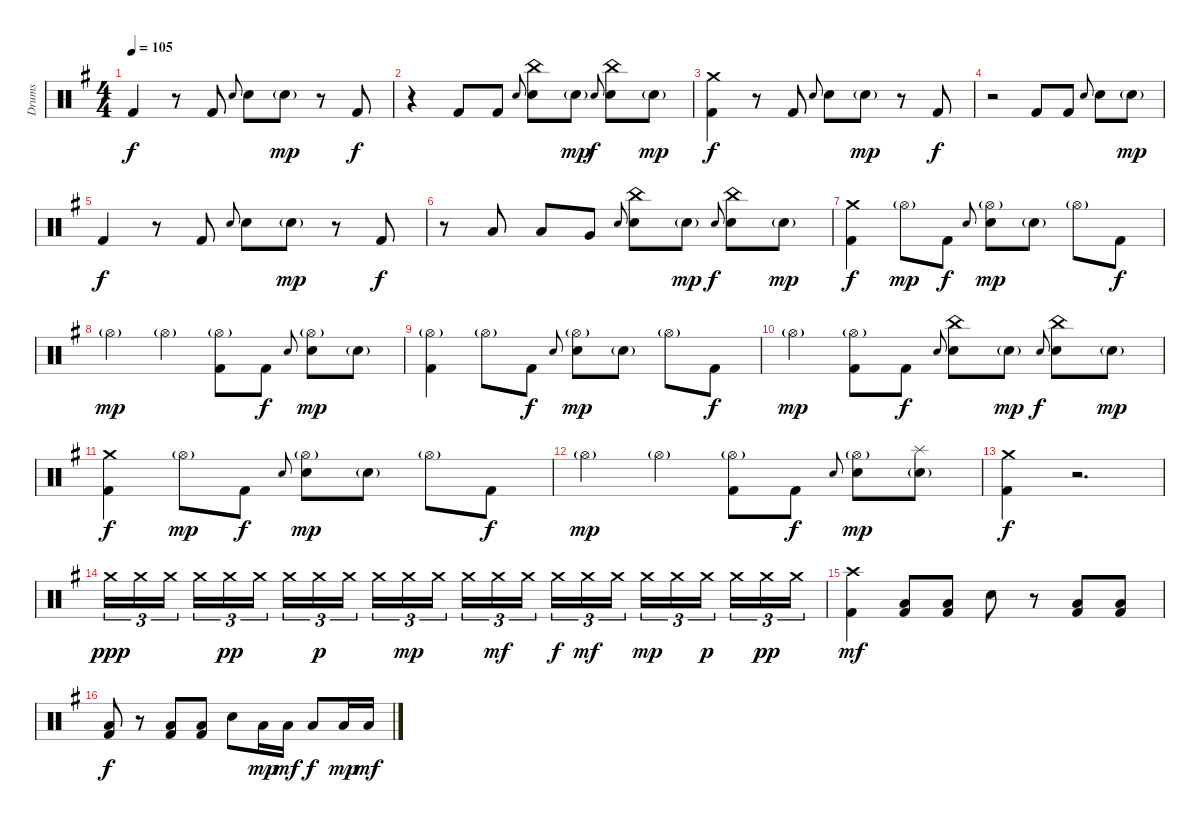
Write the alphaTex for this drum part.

\track ("Drums" "Drums") {instrument percussion}
\staff {score}
\articulation defaults
\ts (4 4)
\tempo 105
\clef neutral
\ks eminor "Kick (hit) 2".4{dy f}
r.8 "Kick (hit) 2".8 "Electric Snare (hit)".8{gr onbeat} "Electric Snare (hit)".8 "Electric Snare (hit)"{g}.8{dy mp} r.8 "Kick (hit) 2".8{dy f} |
r.4 "Kick (hit) 2".8 "Kick (hit) 2".8 "Electric Snare (hit)".8{gr onbeat} ("China (hit)" "Electric Snare (hit)").8 "Electric Snare (hit)"{g}.8{dy mp} "Electric Snare (hit)".8{gr onbeat dy f} ("China (hit)" "Electric Snare (hit)").8 "Electric Snare (hit)"{g}.8{dy mp} |
("Crash medium (hit)" "Kick (hit) 2").4{dy f} r.8 "Kick (hit) 2".8 "Electric Snare (hit)".8{gr onbeat} "Electric Snare (hit)".8 "Electric Snare (hit)"{g}.8{dy mp} r.8 "Kick (hit) 2".8{dy f} |
r.2 "Kick (hit) 2".8 "Kick (hit) 2".8 "Electric Snare (hit)".8{gr onbeat} "Electric Snare (hit)".8 "Electric Snare (hit)"{g}.8{dy mp} |
"Kick (hit) 2".4{dy f} r.8 "Kick (hit) 2".8 "Electric Snare (hit)".8{gr onbeat} "Electric Snare (hit)".8 "Electric Snare (hit)"{g}.8{dy mp} r.8 "Kick (hit) 2".8{dy f} |
r.8 "Low Tom (hit)".8 "Low Tom (hit)".8 "Very Low Tom (hit)".8 "Electric Snare (hit)".8{gr onbeat} ("China (hit)" "Electric Snare (hit)").8 "Electric Snare (hit)"{g}.8{dy mp} "Electric Snare (hit)".8{gr onbeat dy f} ("China (hit)" "Electric Snare (hit)").8 "Electric Snare (hit)"{g}.8{dy mp} |
("Crash medium (hit)" "Kick (hit) 2").4{dy f} "Hi-Hat (open)"{g}.8{dy mp} "Kick (hit) 2".8{dy f} "Electric Snare (hit)".8{gr onbeat} ("Hi-Hat (open)"{g} "Electric Snare (hit)").8{dy mp} "Electric Snare (hit)"{g}.8 "Hi-Hat (open)"{g}.8 "Kick (hit) 2".8{dy f} |
"Hi-Hat (open)"{g}.4{dy mp} "Hi-Hat (open)"{g}.4 ("Hi-Hat (open)"{g} "Kick (hit) 2").8 "Kick (hit) 2".8{dy f} "Electric Snare (hit)".8{gr onbeat} ("Hi-Hat (open)"{g} "Electric Snare (hit)").8{dy mp} "Electric Snare (hit)"{g}.8 |
("Hi-Hat (open)"{g} "Kick (hit) 2").4 "Hi-Hat (open)"{g}.8 "Kick (hit) 2".8{dy f} "Electric Snare (hit)".8{gr onbeat} ("Hi-Hat (open)"{g} "Electric Snare (hit)").8{dy mp} "Electric Snare (hit)"{g}.8 "Hi-Hat (open)"{g}.8 "Kick (hit) 2".8{dy f} |
"Hi-Hat (open)"{g}.4{dy mp} ("Hi-Hat (open)"{g} "Kick (hit) 2").8 "Kick (hit) 2".8{dy f} "Electric Snare (hit)".8{gr onbeat} ("China (hit)" "Electric Snare (hit)").8 "Electric Snare (hit)"{g}.8{dy mp} "Electric Snare (hit)".8{gr onbeat dy f} ("China (hit)" "Electric Snare (hit)").8 "Electric Snare (hit)"{g}.8{dy mp} |
("Crash medium (hit)" "Kick (hit) 2").4{dy f} "Hi-Hat (open)"{g}.8{dy mp} "Kick (hit) 2".8{dy f} "Electric Snare (hit)".8{gr onbeat} ("Hi-Hat (open)"{g} "Electric Snare (hit)").8{dy mp} "Electric Snare (hit)"{g}.8 "Hi-Hat (open)"{g}.8 "Kick (hit) 2".8{dy f} |
"Hi-Hat (open)"{g}.4{dy mp} "Hi-Hat (open)"{g}.4 ("Hi-Hat (open)"{g} "Kick (hit) 2").8 "Kick (hit) 2".8{dy f} "Electric Snare (hit)".8{gr onbeat} ("Hi-Hat (open)"{g} "Electric Snare (hit)").8{dy mp} ("Splash (hit)" "Electric Snare (hit)"{g}).8 |
("Crash medium (hit)" "Kick (hit) 2").4{dy f} r.2{d} |
"Crash medium (hit)".16{tu (3 2) dy ppp} "Crash medium (hit)".16{tu (3 2)} "Crash medium (hit)".16{tu (3 2) beam splitsecondary} "Crash medium (hit)".16{tu (3 2)} "Crash medium (hit)".16{tu (3 2) dy pp} "Crash medium (hit)".16{tu (3 2)} "Crash medium (hit)".16{tu (3 2)} "Crash medium (hit)".16{tu (3 2) dy p} "Crash medium (hit)".16{tu (3 2) beam splitsecondary} "Crash medium (hit)".16{tu (3 2)} "Crash medium (hit)".16{tu (3 2) dy mp} "Crash medium (hit)".16{tu (3 2)} "Crash medium (hit)".16{tu (3 2)} "Crash medium (hit)".16{tu (3 2) dy mf} "Crash medium (hit)".16{tu (3 2) beam splitsecondary} "Crash medium (hit)".16{tu (3 2) dy f} "Crash medium (hit)".16{tu (3 2) dy mf} "Crash medium (hit)".16{tu (3 2)} "Crash medium (hit)".16{tu (3 2) dy mp} "Crash medium (hit)".16{tu (3 2)} "Crash medium (hit)".16{tu (3 2) dy p beam splitsecondary} "Crash medium (hit)".16{tu (3 2)} "Crash medium (hit)".16{tu (3 2) dy pp} "Crash medium (hit)".16{tu (3 2)} |
("Crash high (hit)" "Kick (hit) 2").4{dy mf} ("Low Floor Tom (hit)" "Kick (hit) 2").8 ("Low Floor Tom (hit)" "Kick (hit) 2").8 "Electric Snare (hit)".8 r.8 ("Low Floor Tom (hit)" "Kick (hit) 2").8 ("Low Floor Tom (hit)" "Kick (hit) 2").8 |
("Low Floor Tom (hit)" "Kick (hit) 2").8{dy f} r.8 ("Low Floor Tom (hit)" "Kick (hit) 2").8 ("Low Floor Tom (hit)" "Kick (hit) 2").8 "Electric Snare (hit)".8 "Low Floor Tom (hit)".16{dy mp} "Low Floor Tom (hit)".16{dy mf} "Low Floor Tom (hit)".8{dy f} "Low Floor Tom (hit)".16{dy mp} "Low Floor Tom (hit)".16{dy mf}
